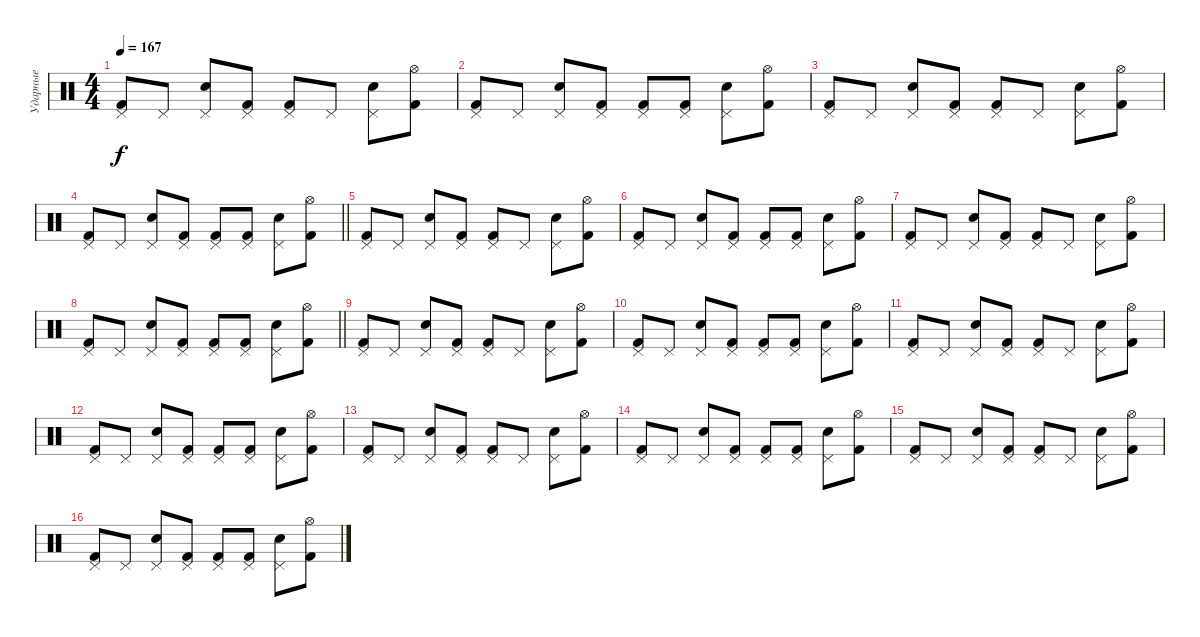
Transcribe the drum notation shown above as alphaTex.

\track ("Ударные" "Ударные") {instrument percussion}
\staff {score}
\articulation defaults
\ts (4 4)
\tempo 167
\clef neutral
\ks c
("Pedal Hi-Hat (hit)" "Kick (hit) 2").8{dy f} "Pedal Hi-Hat (hit)".8 ("Pedal Hi-Hat (hit)" "Electric Snare (hit)").8 ("Pedal Hi-Hat (hit)" "Kick (hit) 2").8 ("Pedal Hi-Hat (hit)" "Kick (hit) 2").8 "Pedal Hi-Hat (hit)".8 ("Pedal Hi-Hat (hit)" "Electric Snare (hit)").8 ("Hi-Hat (open)" "Kick (hit) 2").8 |
("Pedal Hi-Hat (hit)" "Kick (hit) 2").8 "Pedal Hi-Hat (hit)".8 ("Pedal Hi-Hat (hit)" "Electric Snare (hit)").8 ("Pedal Hi-Hat (hit)" "Kick (hit) 2").8 ("Pedal Hi-Hat (hit)" "Kick (hit) 2").8 ("Pedal Hi-Hat (hit)" "Kick (hit) 2").8 ("Pedal Hi-Hat (hit)" "Electric Snare (hit)").8 ("Hi-Hat (open)" "Kick (hit) 2").8 |
("Pedal Hi-Hat (hit)" "Kick (hit) 2").8 "Pedal Hi-Hat (hit)".8 ("Pedal Hi-Hat (hit)" "Electric Snare (hit)").8 ("Pedal Hi-Hat (hit)" "Kick (hit) 2").8 ("Pedal Hi-Hat (hit)" "Kick (hit) 2").8 "Pedal Hi-Hat (hit)".8 ("Pedal Hi-Hat (hit)" "Electric Snare (hit)").8 ("Hi-Hat (open)" "Kick (hit) 2").8 |
\barLineRight lightlight
("Pedal Hi-Hat (hit)" "Kick (hit) 2").8 "Pedal Hi-Hat (hit)".8 ("Pedal Hi-Hat (hit)" "Electric Snare (hit)").8 ("Pedal Hi-Hat (hit)" "Kick (hit) 2").8 ("Pedal Hi-Hat (hit)" "Kick (hit) 2").8 ("Pedal Hi-Hat (hit)" "Kick (hit) 2").8 ("Pedal Hi-Hat (hit)" "Electric Snare (hit)").8 ("Hi-Hat (open)" "Kick (hit) 2").8 |
("Pedal Hi-Hat (hit)" "Kick (hit) 2").8 "Pedal Hi-Hat (hit)".8 ("Pedal Hi-Hat (hit)" "Electric Snare (hit)").8 ("Pedal Hi-Hat (hit)" "Kick (hit) 2").8 ("Pedal Hi-Hat (hit)" "Kick (hit) 2").8 "Pedal Hi-Hat (hit)".8 ("Pedal Hi-Hat (hit)" "Electric Snare (hit)").8 ("Hi-Hat (open)" "Kick (hit) 2").8 |
("Pedal Hi-Hat (hit)" "Kick (hit) 2").8 "Pedal Hi-Hat (hit)".8 ("Pedal Hi-Hat (hit)" "Electric Snare (hit)").8 ("Pedal Hi-Hat (hit)" "Kick (hit) 2").8 ("Pedal Hi-Hat (hit)" "Kick (hit) 2").8 ("Pedal Hi-Hat (hit)" "Kick (hit) 2").8 ("Pedal Hi-Hat (hit)" "Electric Snare (hit)").8 ("Hi-Hat (open)" "Kick (hit) 2").8 |
("Pedal Hi-Hat (hit)" "Kick (hit) 2").8 "Pedal Hi-Hat (hit)".8 ("Pedal Hi-Hat (hit)" "Electric Snare (hit)").8 ("Pedal Hi-Hat (hit)" "Kick (hit) 2").8 ("Pedal Hi-Hat (hit)" "Kick (hit) 2").8 "Pedal Hi-Hat (hit)".8 ("Pedal Hi-Hat (hit)" "Electric Snare (hit)").8 ("Hi-Hat (open)" "Kick (hit) 2").8 |
\barLineRight lightlight
("Pedal Hi-Hat (hit)" "Kick (hit) 2").8 "Pedal Hi-Hat (hit)".8 ("Pedal Hi-Hat (hit)" "Electric Snare (hit)").8 ("Pedal Hi-Hat (hit)" "Kick (hit) 2").8 ("Pedal Hi-Hat (hit)" "Kick (hit) 2").8 ("Pedal Hi-Hat (hit)" "Kick (hit) 2").8 ("Pedal Hi-Hat (hit)" "Electric Snare (hit)").8 ("Hi-Hat (open)" "Kick (hit) 2").8 |
("Pedal Hi-Hat (hit)" "Kick (hit) 2").8 "Pedal Hi-Hat (hit)".8 ("Pedal Hi-Hat (hit)" "Electric Snare (hit)").8 ("Pedal Hi-Hat (hit)" "Kick (hit) 2").8 ("Pedal Hi-Hat (hit)" "Kick (hit) 2").8 "Pedal Hi-Hat (hit)".8 ("Pedal Hi-Hat (hit)" "Electric Snare (hit)").8 ("Hi-Hat (open)" "Kick (hit) 2").8 |
("Pedal Hi-Hat (hit)" "Kick (hit) 2").8 "Pedal Hi-Hat (hit)".8 ("Pedal Hi-Hat (hit)" "Electric Snare (hit)").8 ("Pedal Hi-Hat (hit)" "Kick (hit) 2").8 ("Pedal Hi-Hat (hit)" "Kick (hit) 2").8 ("Pedal Hi-Hat (hit)" "Kick (hit) 2").8 ("Pedal Hi-Hat (hit)" "Electric Snare (hit)").8 ("Hi-Hat (open)" "Kick (hit) 2").8 |
("Pedal Hi-Hat (hit)" "Kick (hit) 2").8 "Pedal Hi-Hat (hit)".8 ("Pedal Hi-Hat (hit)" "Electric Snare (hit)").8 ("Pedal Hi-Hat (hit)" "Kick (hit) 2").8 ("Pedal Hi-Hat (hit)" "Kick (hit) 2").8 "Pedal Hi-Hat (hit)".8 ("Pedal Hi-Hat (hit)" "Electric Snare (hit)").8 ("Hi-Hat (open)" "Kick (hit) 2").8 |
("Pedal Hi-Hat (hit)" "Kick (hit) 2").8 "Pedal Hi-Hat (hit)".8 ("Pedal Hi-Hat (hit)" "Electric Snare (hit)").8 ("Pedal Hi-Hat (hit)" "Kick (hit) 2").8 ("Pedal Hi-Hat (hit)" "Kick (hit) 2").8 ("Pedal Hi-Hat (hit)" "Kick (hit) 2").8 ("Pedal Hi-Hat (hit)" "Electric Snare (hit)").8 ("Hi-Hat (open)" "Kick (hit) 2").8 |
("Pedal Hi-Hat (hit)" "Kick (hit) 2").8 "Pedal Hi-Hat (hit)".8 ("Pedal Hi-Hat (hit)" "Electric Snare (hit)").8 ("Pedal Hi-Hat (hit)" "Kick (hit) 2").8 ("Pedal Hi-Hat (hit)" "Kick (hit) 2").8 "Pedal Hi-Hat (hit)".8 ("Pedal Hi-Hat (hit)" "Electric Snare (hit)").8 ("Hi-Hat (open)" "Kick (hit) 2").8 |
("Pedal Hi-Hat (hit)" "Kick (hit) 2").8 "Pedal Hi-Hat (hit)".8 ("Pedal Hi-Hat (hit)" "Electric Snare (hit)").8 ("Pedal Hi-Hat (hit)" "Kick (hit) 2").8 ("Pedal Hi-Hat (hit)" "Kick (hit) 2").8 ("Pedal Hi-Hat (hit)" "Kick (hit) 2").8 ("Pedal Hi-Hat (hit)" "Electric Snare (hit)").8 ("Hi-Hat (open)" "Kick (hit) 2").8 |
("Pedal Hi-Hat (hit)" "Kick (hit) 2").8 "Pedal Hi-Hat (hit)".8 ("Pedal Hi-Hat (hit)" "Electric Snare (hit)").8 ("Pedal Hi-Hat (hit)" "Kick (hit) 2").8 ("Pedal Hi-Hat (hit)" "Kick (hit) 2").8 "Pedal Hi-Hat (hit)".8 ("Pedal Hi-Hat (hit)" "Electric Snare (hit)").8 ("Hi-Hat (open)" "Kick (hit) 2").8 |
("Pedal Hi-Hat (hit)" "Kick (hit) 2").8 "Pedal Hi-Hat (hit)".8 ("Pedal Hi-Hat (hit)" "Electric Snare (hit)").8 ("Pedal Hi-Hat (hit)" "Kick (hit) 2").8 ("Pedal Hi-Hat (hit)" "Kick (hit) 2").8 ("Pedal Hi-Hat (hit)" "Kick (hit) 2").8 ("Pedal Hi-Hat (hit)" "Electric Snare (hit)").8 ("Hi-Hat (open)" "Kick (hit) 2").8
